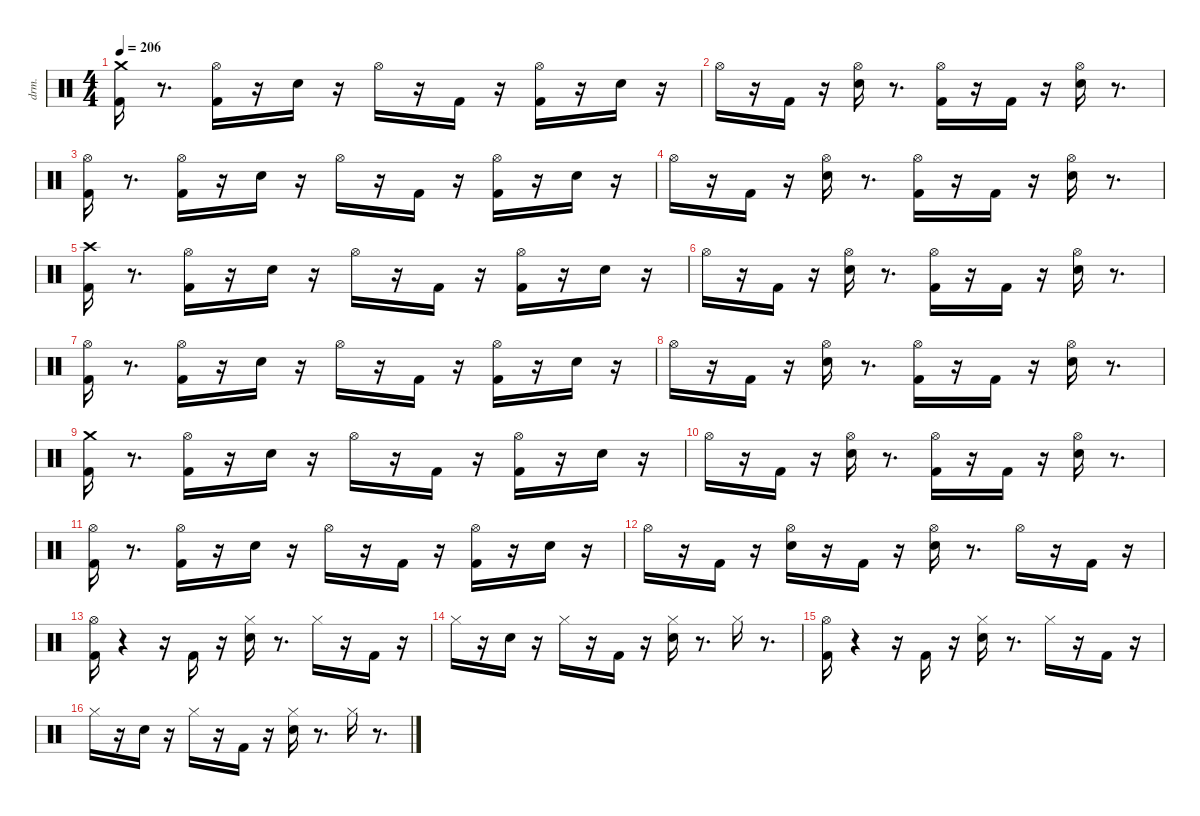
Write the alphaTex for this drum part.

\defaultSystemsLayout 4
\hideDynamics
\bracketExtendMode nobrackets
\otherSystemsTrackNameOrientation horizontal
\track ("EZdrummer 3" "drm.") {instrument percussion}
\staff {score}
\articulation defaults
\ts (4 4)
\tempo 206
\clef neutral
\ks aminor
("Kick (hit) 2" "Crash medium (hit)").16{dy ff beam Down} r.8{d beam Down} ("Kick (hit) 2" "Hi-Hat (open)"{acc #}).16{beam Down} r.16{beam Down} "Snare (hit) 2".16{beam Down} r.16{beam Down} "Hi-Hat (open)"{acc #}.16{dy f beam Down} r.16{beam Down} "Kick (hit) 2".16{dy mf beam Up} r.16{beam Up} ("Kick (hit) 2" "Hi-Hat (open)"{acc #}).16{dy ff beam Down} r.16{beam Down} "Snare (hit) 2".16{beam Down} r.16{beam Down} |
"Hi-Hat (open)"{acc #}.16{dy fff beam Down} r.16{beam Down} "Kick (hit) 2".16{dy ff beam Up} r.16{beam Up} ("Snare (hit) 2" "Hi-Hat (open)"{acc #}).16{beam Down} r.8{d beam Down} ("Kick (hit) 2" "Hi-Hat (open)"{acc #}).16{dy mf beam Down} r.16{beam Down} "Kick (hit) 2".16{dy fff beam Up} r.16{beam Up} ("Snare (hit) 2" "Hi-Hat (open)"{acc #}).16{dy ff beam Down} r.8{d beam Down} |
("Kick (hit) 2" "Hi-Hat (open)"{acc #}).16{beam Down} r.8{d beam Down} ("Kick (hit) 2" "Hi-Hat (open)"{acc #}).16{beam Down} r.16{beam Down} "Snare (hit) 2".16{beam Down} r.16{beam Down} "Hi-Hat (open)"{acc #}.16{dy f beam Down} r.16{beam Down} "Kick (hit) 2".16{dy mf beam Up} r.16{beam Up} ("Kick (hit) 2" "Hi-Hat (open)"{acc #}).16{dy ff beam Down} r.16{beam Down} "Snare (hit) 2".16{beam Down} r.16{beam Down} |
"Hi-Hat (open)"{acc #}.16{dy fff beam Down} r.16{beam Down} "Kick (hit) 2".16{dy ff beam Up} r.16{beam Up} ("Snare (hit) 2" "Hi-Hat (open)"{acc #}).16{beam Down} r.8{d beam Down} ("Kick (hit) 2" "Hi-Hat (open)"{acc #}).16{dy mf beam Down} r.16{beam Down} "Kick (hit) 2".16{dy fff beam Up} r.16{beam Up} ("Snare (hit) 2" "Hi-Hat (open)"{acc #}).16{dy ff beam Down} r.8{d beam Down} |
("Kick (hit) 2" "Crash high (hit)"{acc #}).16{beam Down} r.8{d beam Down} ("Kick (hit) 2" "Hi-Hat (open)"{acc #}).16{beam Down} r.16{beam Down} "Snare (hit) 2".16{beam Down} r.16{beam Down} "Hi-Hat (open)"{acc #}.16{dy f beam Down} r.16{beam Down} "Kick (hit) 2".16{dy mf beam Up} r.16{beam Up} ("Kick (hit) 2" "Hi-Hat (open)"{acc #}).16{dy ff beam Down} r.16{beam Down} "Snare (hit) 2".16{beam Down} r.16{beam Down} |
"Hi-Hat (open)"{acc #}.16{dy fff beam Down} r.16{beam Down} "Kick (hit) 2".16{dy ff beam Up} r.16{beam Up} ("Snare (hit) 2" "Hi-Hat (open)"{acc #}).16{beam Down} r.8{d beam Down} ("Kick (hit) 2" "Hi-Hat (open)"{acc #}).16{dy mf beam Down} r.16{beam Down} "Kick (hit) 2".16{dy fff beam Up} r.16{beam Up} ("Snare (hit) 2" "Hi-Hat (open)"{acc #}).16{dy ff beam Down} r.8{d beam Down} |
("Kick (hit) 2" "Hi-Hat (open)"{acc #}).16{beam Down} r.8{d beam Down} ("Kick (hit) 2" "Hi-Hat (open)"{acc #}).16{beam Down} r.16{beam Down} "Snare (hit) 2".16{beam Down} r.16{beam Down} "Hi-Hat (open)"{acc #}.16{dy f beam Down} r.16{beam Down} "Kick (hit) 2".16{dy mf beam Up} r.16{beam Up} ("Kick (hit) 2" "Hi-Hat (open)"{acc #}).16{dy ff beam Down} r.16{beam Down} "Snare (hit) 2".16{beam Down} r.16{beam Down} |
"Hi-Hat (open)"{acc #}.16{dy fff beam Down} r.16{beam Down} "Kick (hit) 2".16{dy ff beam Up} r.16{beam Up} ("Snare (hit) 2" "Hi-Hat (open)"{acc #}).16{beam Down} r.8{d beam Down} ("Kick (hit) 2" "Hi-Hat (open)"{acc #}).16{dy mf beam Down} r.16{beam Down} "Kick (hit) 2".16{dy fff beam Up} r.16{beam Up} ("Snare (hit) 2" "Hi-Hat (open)"{acc #}).16{dy ff beam Down} r.8{d beam Down} |
("Kick (hit) 2" "Crash medium (hit)").16{beam Down} r.8{d beam Down} ("Kick (hit) 2" "Hi-Hat (open)"{acc #}).16{beam Down} r.16{beam Down} "Snare (hit) 2".16{beam Down} r.16{beam Down} "Hi-Hat (open)"{acc #}.16{dy f beam Down} r.16{beam Down} "Kick (hit) 2".16{dy mf beam Up} r.16{beam Up} ("Kick (hit) 2" "Hi-Hat (open)"{acc #}).16{dy ff beam Down} r.16{beam Down} "Snare (hit) 2".16{beam Down} r.16{beam Down} |
"Hi-Hat (open)"{acc #}.16{dy fff beam Down} r.16{beam Down} "Kick (hit) 2".16{dy ff beam Up} r.16{beam Up} ("Snare (hit) 2" "Hi-Hat (open)"{acc #}).16{beam Down} r.8{d beam Down} ("Kick (hit) 2" "Hi-Hat (open)"{acc #}).16{dy mf beam Down} r.16{beam Down} "Kick (hit) 2".16{dy fff beam Up} r.16{beam Up} ("Snare (hit) 2" "Hi-Hat (open)"{acc #}).16{dy ff beam Down} r.8{d beam Down} |
("Kick (hit) 2" "Hi-Hat (open)"{acc #}).16{beam Down} r.8{d beam Down} ("Kick (hit) 2" "Hi-Hat (open)"{acc #}).16{beam Down} r.16{beam Down} "Snare (hit) 2".16{beam Down} r.16{beam Down} "Hi-Hat (open)"{acc #}.16{dy f beam Down} r.16{beam Down} "Kick (hit) 2".16{dy mf beam Up} r.16{beam Up} ("Kick (hit) 2" "Hi-Hat (open)"{acc #}).16{dy ff beam Down} r.16{beam Down} "Snare (hit) 2".16{beam Down} r.16{beam Down} |
"Hi-Hat (open)"{acc #}.16{dy fff beam Down} r.16{beam Down} "Kick (hit) 2".16{dy ff beam Up} r.16{beam Up} ("Snare (hit) 2" "Hi-Hat (open)"{acc #}).16{beam Down} r.16{beam Down} "Kick (hit) 2".16{beam Up} r.16{beam Up} ("Snare (hit) 2" "Hi-Hat (open)"{acc #}).16{beam Down} r.8{d beam Down} "Hi-Hat (open)"{acc #}.16{dy f beam Down} r.16{beam Down} "Kick (hit) 2".16{dy mf beam Up} r.16{beam Up} |
("Kick (hit) 2" "Hi-Hat (open)"{acc #}).16{dy fff beam Down} r.4{beam Down} r.16{beam Down} "Kick (hit) 2".16{dy ff beam Up} r.16{beam Up} ("Snare (hit) 2" "Hi-Hat (closed)"{acc #}).16{beam Down} r.8{d beam Down} "Hi-Hat (closed)"{acc #}.16{dy p beam Down} r.16{beam Down} "Kick (hit) 2".16{dy ff beam Up} r.16{beam Up} |
"Hi-Hat (closed)"{acc #}.16{dy fff beam Down} r.16{beam Down} "Snare (hit) 2".16{dy ff beam Down} r.16{beam Down} "Hi-Hat (closed)"{acc #}.16{dy mp beam Down} r.16{beam Down} "Kick (hit) 2".16{dy ff beam Up} r.16{beam Up} ("Snare (hit) 2" "Hi-Hat (closed)"{acc #}).16{beam Down} r.8{d beam Down} "Hi-Hat (closed)"{acc #}.16{dy pp beam Down} r.8{d beam Down} |
("Kick (hit) 2" "Hi-Hat (open)"{acc #}).16{dy ff beam Down} r.4{beam Down} r.16{beam Down} "Kick (hit) 2".16{beam Up} r.16{beam Up} ("Snare (hit) 2" "Hi-Hat (closed)"{acc #}).16{beam Down} r.8{d beam Down} "Hi-Hat (closed)"{acc #}.16{dy p beam Down} r.16{beam Down} "Kick (hit) 2".16{dy ff beam Up} r.16{beam Up} |
"Hi-Hat (closed)"{acc #}.16{dy fff beam Down} r.16{beam Down} "Snare (hit) 2".16{dy ff beam Down} r.16{beam Down} "Hi-Hat (closed)"{acc #}.16{dy mp beam Down} r.16{beam Down} "Kick (hit) 2".16{dy ff beam Up} r.16{beam Up} ("Snare (hit) 2" "Hi-Hat (closed)"{acc #}).16{beam Down} r.8{d beam Down} "Hi-Hat (closed)"{acc #}.16{dy pp beam Down} r.8{d beam Down}
